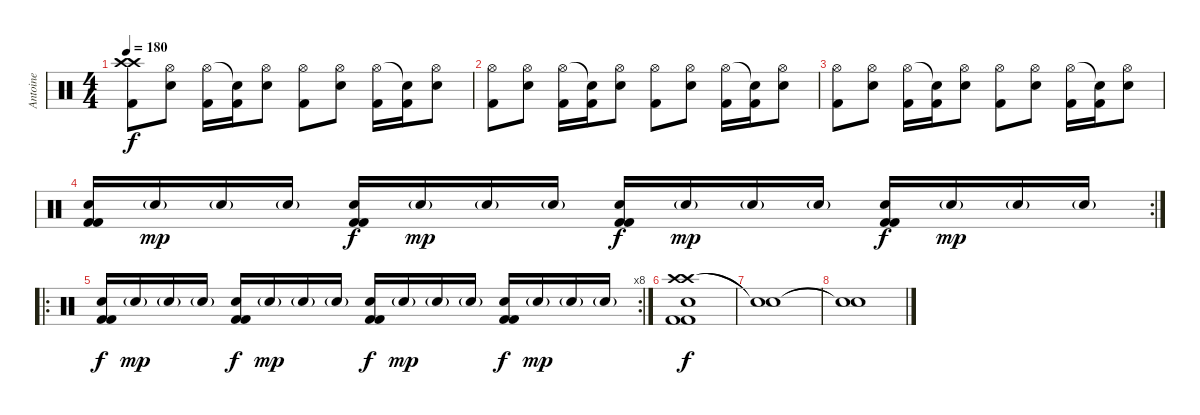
\track ("Antoine" "Antoine") {instrument percussion}
\staff {score}
\articulation defaults
\ts (4 4)
\tempo 180
\clef neutral
\ks c
("Crash high (hit)" "Crash high (hit)" "Kick (hit) 2").8{dy f} ("Hi-Hat (open)" "Snare (hit) 2").8 ("Hi-Hat (open)" "Kick (hit) 2").16 ("Snare (hit)"{t} "Kick (hit) 2").16 ("Hi-Hat (open)" "Snare (hit) 2").8 ("Hi-Hat (open)" "Kick (hit) 2").8 ("Hi-Hat (open)" "Snare (hit) 2").8 ("Hi-Hat (open)" "Kick (hit) 2").16 ("Snare (hit)"{t} "Kick (hit) 2").16 ("Hi-Hat (open)" "Snare (hit) 2").8 |
("Hi-Hat (open)" "Kick (hit) 2").8 ("Hi-Hat (open)" "Snare (hit) 2").8 ("Hi-Hat (open)" "Kick (hit) 2").16 ("Snare (hit)"{t} "Kick (hit) 2").16 ("Hi-Hat (open)" "Snare (hit) 2").8 ("Hi-Hat (open)" "Kick (hit) 2").8 ("Hi-Hat (open)" "Snare (hit) 2").8 ("Hi-Hat (open)" "Kick (hit) 2").16 ("Snare (hit)"{t} "Kick (hit) 2").16 ("Hi-Hat (open)" "Snare (hit) 2").8 |
("Hi-Hat (open)" "Kick (hit) 2").8 ("Hi-Hat (open)" "Snare (hit) 2").8 ("Hi-Hat (open)" "Kick (hit) 2").16 ("Snare (hit)"{t} "Kick (hit) 2").16 ("Hi-Hat (open)" "Snare (hit) 2").8 ("Hi-Hat (open)" "Kick (hit) 2").8 ("Hi-Hat (open)" "Snare (hit) 2").8 ("Hi-Hat (open)" "Kick (hit) 2").16 ("Snare (hit)"{t} "Kick (hit) 2").16 ("Hi-Hat (open)" "Snare (hit) 2").8 |
\rc 2
("Electric Snare (hit)" "Kick (hit) 2" "Kick (hit) 2").16 "Electric Snare (hit)"{g}.16{dy mp} "Electric Snare (hit)"{g}.16 "Electric Snare (hit)"{g}.16 ("Electric Snare (hit)" "Kick (hit) 2" "Kick (hit) 2").16{dy f} "Electric Snare (hit)"{g}.16{dy mp} "Electric Snare (hit)"{g}.16 "Electric Snare (hit)"{g}.16 ("Electric Snare (hit)" "Kick (hit) 2" "Kick (hit) 2").16{dy f} "Electric Snare (hit)"{g}.16{dy mp} "Electric Snare (hit)"{g}.16 "Electric Snare (hit)"{g}.16 ("Electric Snare (hit)" "Kick (hit) 2" "Kick (hit) 2").16{dy f} "Electric Snare (hit)"{g}.16{dy mp} "Electric Snare (hit)"{g}.16 "Electric Snare (hit)"{g}.16 |
\ro
\rc 8
("Electric Snare (hit)" "Kick (hit) 2" "Kick (hit) 2").16{dy f} "Electric Snare (hit)"{g}.16{dy mp} "Electric Snare (hit)"{g}.16 "Electric Snare (hit)"{g}.16 ("Electric Snare (hit)" "Kick (hit) 2" "Kick (hit) 2").16{dy f} "Electric Snare (hit)"{g}.16{dy mp} "Electric Snare (hit)"{g}.16 "Electric Snare (hit)"{g}.16 ("Electric Snare (hit)" "Kick (hit) 2" "Kick (hit) 2").16{dy f} "Electric Snare (hit)"{g}.16{dy mp} "Electric Snare (hit)"{g}.16 "Electric Snare (hit)"{g}.16 ("Electric Snare (hit)" "Kick (hit) 2" "Kick (hit) 2").16{dy f} "Electric Snare (hit)"{g}.16{dy mp} "Electric Snare (hit)"{g}.16 "Electric Snare (hit)"{g}.16 |
("Crash high (hit)" "Crash high (hit)" "Electric Snare (hit)" "Kick (hit) 2" "Kick (hit) 2").1{dy f} |
("Snare (hit)"{t} "Snare (hit)"{t}).1 |
("Snare (hit)"{t} "Snare (hit)"{t}).1
